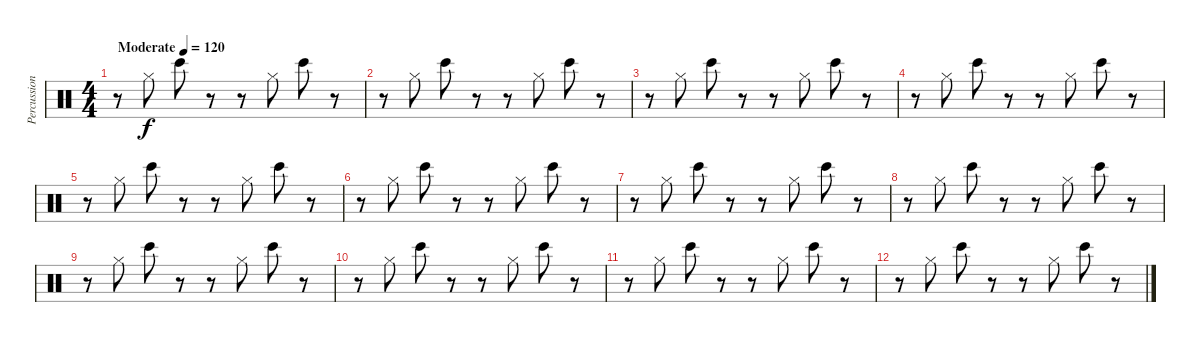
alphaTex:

\track ("Percussion" "Percussion") {instrument percussion}
\staff {score}
\articulation defaults
\ts (4 4)
\tempo (120 "Moderate")
\clef neutral
\ks c
r.8{dy f} "Hi-Hat (closed)".8 "Bongo High (hit)".8 r.8 r.8 "Hi-Hat (closed)".8 "Bongo High (hit)".8 r.8 |
r.8 "Hi-Hat (closed)".8 "Bongo High (hit)".8 r.8 r.8 "Hi-Hat (closed)".8 "Bongo High (hit)".8 r.8 |
r.8 "Hi-Hat (closed)".8 "Bongo High (hit)".8 r.8 r.8 "Hi-Hat (closed)".8 "Bongo High (hit)".8 r.8 |
r.8 "Hi-Hat (closed)".8 "Bongo High (hit)".8 r.8 r.8 "Hi-Hat (closed)".8 "Bongo High (hit)".8 r.8 |
r.8 "Hi-Hat (closed)".8 "Bongo High (hit)".8 r.8 r.8 "Hi-Hat (closed)".8 "Bongo High (hit)".8 r.8 |
r.8 "Hi-Hat (closed)".8 "Bongo High (hit)".8 r.8 r.8 "Hi-Hat (closed)".8 "Bongo High (hit)".8 r.8 |
r.8 "Hi-Hat (closed)".8 "Bongo High (hit)".8 r.8 r.8 "Hi-Hat (closed)".8 "Bongo High (hit)".8 r.8 |
r.8 "Hi-Hat (closed)".8 "Bongo High (hit)".8 r.8 r.8 "Hi-Hat (closed)".8 "Bongo High (hit)".8 r.8 |
r.8 "Hi-Hat (closed)".8 "Bongo High (hit)".8 r.8 r.8 "Hi-Hat (closed)".8 "Bongo High (hit)".8 r.8 |
r.8 "Hi-Hat (closed)".8 "Bongo High (hit)".8 r.8 r.8 "Hi-Hat (closed)".8 "Bongo High (hit)".8 r.8 |
r.8 "Hi-Hat (closed)".8 "Bongo High (hit)".8 r.8 r.8 "Hi-Hat (closed)".8 "Bongo High (hit)".8 r.8 |
r.8 "Hi-Hat (closed)".8 "Bongo High (hit)".8 r.8 r.8 "Hi-Hat (closed)".8 "Bongo High (hit)".8 r.8
